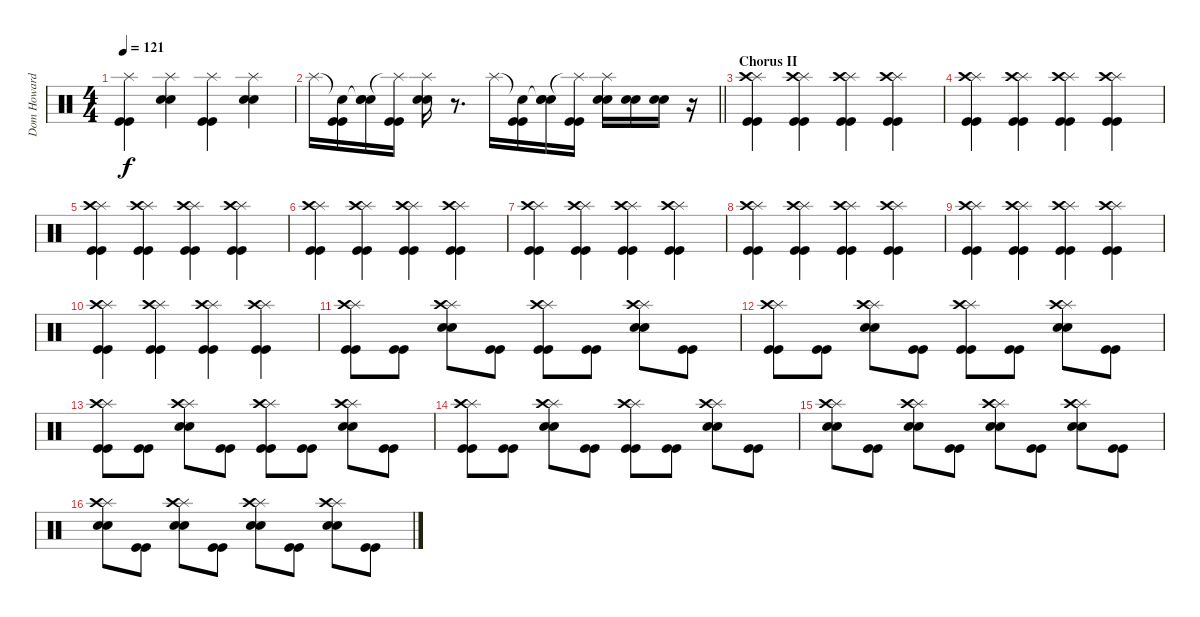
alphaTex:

\track ("Dom Howard - Drums" "Dom Howard") {instrument percussion}
\staff {score}
\articulation defaults
\ts (4 4)
\tempo 121
\clef neutral
\ks c
("Splash (hit)" "Kick (hit)" "Kick (hit)").4{dy f} ("Splash (hit)" "Electric Snare (hit)" "Electric Snare (hit)").4 ("Splash (hit)" "Kick (hit)" "Kick (hit)").4 ("Splash (hit)" "Electric Snare (hit)" "Electric Snare (hit)").4 |
\barLineRight lightlight "Splash (hit)".16
("Snare (hit)"{t} "Kick (hit)" "Kick (hit)").16 ("Snare (hit)"{t} "Electric Snare (hit)" "Electric Snare (hit)").16 ("Splash (hit)"{t} "Kick (hit)" "Kick (hit)").16 ("Splash (hit)" "Electric Snare (hit)" "Electric Snare (hit)").16 r.8{d} "Splash (hit)".16 ("Snare (hit)"{t} "Kick (hit)" "Kick (hit)").16 ("Snare (hit)"{t} "Electric Snare (hit)" "Electric Snare (hit)").16 ("Splash (hit)"{t} "Kick (hit)" "Kick (hit)").16 ("Splash (hit)" "Electric Snare (hit)" "Electric Snare (hit)").16 ("Electric Snare (hit)" "Electric Snare (hit)").16 ("Electric Snare (hit)" "Electric Snare (hit)").16 r.16 |
\section ("" "Chorus II")
("Splash (hit)" "Crash high (hit)" "Kick (hit)" "Kick (hit)").4 ("Splash (hit)" "Crash high (hit)" "Kick (hit)" "Kick (hit)").4 ("Splash (hit)" "Crash high (hit)" "Kick (hit)" "Kick (hit)").4 ("Splash (hit)" "Crash high (hit)" "Kick (hit)" "Kick (hit)").4 |
("Splash (hit)" "Crash high (hit)" "Kick (hit)" "Kick (hit)").4 ("Splash (hit)" "Crash high (hit)" "Kick (hit)" "Kick (hit)").4 ("Splash (hit)" "Crash high (hit)" "Kick (hit)" "Kick (hit)").4 ("Splash (hit)" "Crash high (hit)" "Kick (hit)" "Kick (hit)").4 |
("Splash (hit)" "Crash high (hit)" "Kick (hit)" "Kick (hit)").4 ("Splash (hit)" "Crash high (hit)" "Kick (hit)" "Kick (hit)").4 ("Splash (hit)" "Crash high (hit)" "Kick (hit)" "Kick (hit)").4 ("Splash (hit)" "Crash high (hit)" "Kick (hit)" "Kick (hit)").4 |
("Splash (hit)" "Crash high (hit)" "Kick (hit)" "Kick (hit)").4 ("Splash (hit)" "Crash high (hit)" "Kick (hit)" "Kick (hit)").4 ("Splash (hit)" "Crash high (hit)" "Kick (hit)" "Kick (hit)").4 ("Splash (hit)" "Crash high (hit)" "Kick (hit)" "Kick (hit)").4 |
("Splash (hit)" "Crash high (hit)" "Kick (hit)" "Kick (hit)").4 ("Splash (hit)" "Crash high (hit)" "Kick (hit)" "Kick (hit)").4 ("Splash (hit)" "Crash high (hit)" "Kick (hit)" "Kick (hit)").4 ("Splash (hit)" "Crash high (hit)" "Kick (hit)" "Kick (hit)").4 |
("Splash (hit)" "Crash high (hit)" "Kick (hit)" "Kick (hit)").4 ("Splash (hit)" "Crash high (hit)" "Kick (hit)" "Kick (hit)").4 ("Splash (hit)" "Crash high (hit)" "Kick (hit)" "Kick (hit)").4 ("Splash (hit)" "Crash high (hit)" "Kick (hit)" "Kick (hit)").4 |
("Splash (hit)" "Crash high (hit)" "Kick (hit)" "Kick (hit)").4 ("Splash (hit)" "Crash high (hit)" "Kick (hit)" "Kick (hit)").4 ("Splash (hit)" "Crash high (hit)" "Kick (hit)" "Kick (hit)").4 ("Splash (hit)" "Crash high (hit)" "Kick (hit)" "Kick (hit)").4 |
("Splash (hit)" "Crash high (hit)" "Kick (hit)" "Kick (hit)").4 ("Splash (hit)" "Crash high (hit)" "Kick (hit)" "Kick (hit)").4 ("Splash (hit)" "Crash high (hit)" "Kick (hit)" "Kick (hit)").4 ("Splash (hit)" "Crash high (hit)" "Kick (hit)" "Kick (hit)").4 |
("Splash (hit)" "Crash high (hit)" "Kick (hit)" "Kick (hit)").8 ("Kick (hit)" "Kick (hit)").8 ("Splash (hit)" "Crash high (hit)" "Electric Snare (hit)" "Electric Snare (hit)").8 ("Kick (hit)" "Kick (hit)").8 ("Splash (hit)" "Crash high (hit)" "Kick (hit)" "Kick (hit)").8 ("Kick (hit)" "Kick (hit)").8 ("Splash (hit)" "Crash high (hit)" "Electric Snare (hit)" "Electric Snare (hit)").8 ("Kick (hit)" "Kick (hit)").8 |
("Splash (hit)" "Crash high (hit)" "Kick (hit)" "Kick (hit)").8 ("Kick (hit)" "Kick (hit)").8 ("Splash (hit)" "Crash high (hit)" "Electric Snare (hit)" "Electric Snare (hit)").8 ("Kick (hit)" "Kick (hit)").8 ("Splash (hit)" "Crash high (hit)" "Kick (hit)" "Kick (hit)").8 ("Kick (hit)" "Kick (hit)").8 ("Splash (hit)" "Crash high (hit)" "Electric Snare (hit)" "Electric Snare (hit)").8 ("Kick (hit)" "Kick (hit)").8 |
("Splash (hit)" "Crash high (hit)" "Kick (hit)" "Kick (hit)").8 ("Kick (hit)" "Kick (hit)").8 ("Splash (hit)" "Crash high (hit)" "Electric Snare (hit)" "Electric Snare (hit)").8 ("Kick (hit)" "Kick (hit)").8 ("Splash (hit)" "Crash high (hit)" "Kick (hit)" "Kick (hit)").8 ("Kick (hit)" "Kick (hit)").8 ("Splash (hit)" "Crash high (hit)" "Electric Snare (hit)" "Electric Snare (hit)").8 ("Kick (hit)" "Kick (hit)").8 |
("Splash (hit)" "Crash high (hit)" "Kick (hit)" "Kick (hit)").8 ("Kick (hit)" "Kick (hit)").8 ("Splash (hit)" "Crash high (hit)" "Electric Snare (hit)" "Electric Snare (hit)").8 ("Kick (hit)" "Kick (hit)").8 ("Splash (hit)" "Crash high (hit)" "Kick (hit)" "Kick (hit)").8 ("Kick (hit)" "Kick (hit)").8 ("Splash (hit)" "Crash high (hit)" "Electric Snare (hit)" "Electric Snare (hit)").8 ("Kick (hit)" "Kick (hit)").8 |
("Splash (hit)" "Crash high (hit)" "Electric Snare (hit)" "Electric Snare (hit)").8 ("Kick (hit)" "Kick (hit)").8 ("Splash (hit)" "Crash high (hit)" "Electric Snare (hit)" "Electric Snare (hit)").8 ("Kick (hit)" "Kick (hit)").8 ("Splash (hit)" "Crash high (hit)" "Electric Snare (hit)" "Electric Snare (hit)").8 ("Kick (hit)" "Kick (hit)").8 ("Splash (hit)" "Crash high (hit)" "Electric Snare (hit)" "Electric Snare (hit)").8 ("Kick (hit)" "Kick (hit)").8 |
("Splash (hit)" "Crash high (hit)" "Electric Snare (hit)" "Electric Snare (hit)").8 ("Kick (hit)" "Kick (hit)").8 ("Splash (hit)" "Crash high (hit)" "Electric Snare (hit)" "Electric Snare (hit)").8 ("Kick (hit)" "Kick (hit)").8 ("Splash (hit)" "Crash high (hit)" "Electric Snare (hit)" "Electric Snare (hit)").8 ("Kick (hit)" "Kick (hit)").8 ("Splash (hit)" "Crash high (hit)" "Electric Snare (hit)" "Electric Snare (hit)").8 ("Kick (hit)" "Kick (hit)").8
